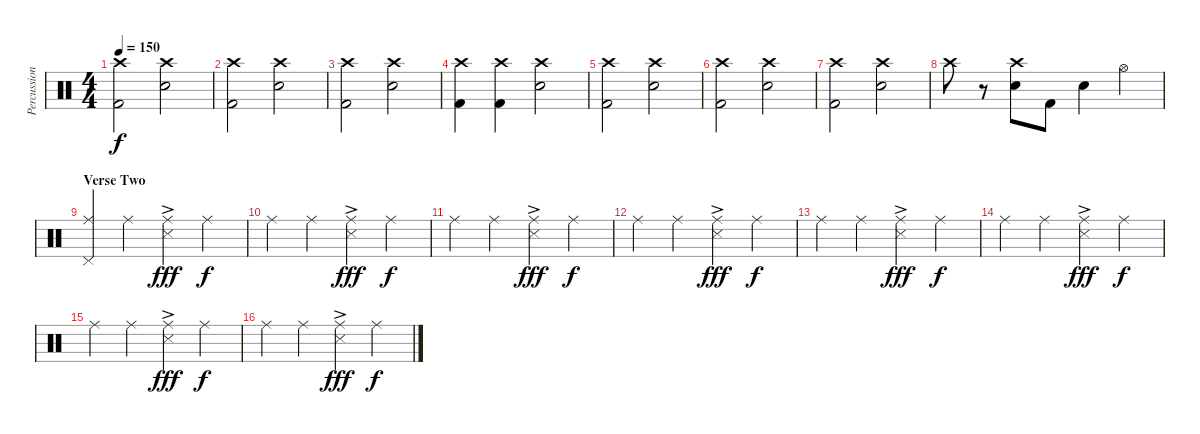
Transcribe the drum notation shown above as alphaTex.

\track ("Percussion [Patrick Wilson]" "Percussion") {instrument percussion}
\staff {score}
\articulation defaults
\ts (4 4)
\tempo 150
\clef neutral
\ks c
("Crash high (hit)" "Kick (hit) 2").2{dy f volume 13} ("Crash high (hit)" "Snare (hit) 2").2 |
("Crash high (hit)" "Kick (hit) 2").2 ("Crash high (hit)" "Snare (hit) 2").2 |
("Crash high (hit)" "Kick (hit) 2").2 ("Crash high (hit)" "Snare (hit) 2").2 |
("Crash high (hit)" "Kick (hit) 2").4 ("Crash high (hit)" "Kick (hit) 2").4 ("Crash high (hit)" "Snare (hit) 2").2 |
("Crash high (hit)" "Kick (hit) 2").2{volume 13} ("Crash high (hit)" "Snare (hit) 2").2 |
("Crash high (hit)" "Kick (hit) 2").2 ("Crash high (hit)" "Snare (hit) 2").2 |
("Crash high (hit)" "Kick (hit) 2").2 ("Crash high (hit)" "Snare (hit) 2").2 |
"Crash high (hit)".8 r.8 ("Crash high (hit)" "Snare (hit) 2").8 "Kick (hit) 2".8 "Snare (hit) 2".4 "Hi-Hat (open)".4 |
\section ("" "Verse Two")
("Ride (middle)" "Pedal Hi-Hat (hit)").4{volume 10} "Ride (middle)".4 ("Ride (middle)"{ac} "Snare (side stick) 3").4{dy fff} "Ride (middle)".4{dy f} |
"Ride (middle)".4 "Ride (middle)".4 ("Ride (middle)"{ac} "Snare (side stick) 3").4{dy fff} "Ride (middle)".4{dy f} |
"Ride (middle)".4 "Ride (middle)".4 ("Ride (middle)"{ac} "Snare (side stick) 3").4{dy fff} "Ride (middle)".4{dy f} |
"Ride (middle)".4 "Ride (middle)".4 ("Ride (middle)"{ac} "Snare (side stick) 3").4{dy fff} "Ride (middle)".4{dy f} |
"Ride (middle)".4 "Ride (middle)".4 ("Ride (middle)"{ac} "Snare (side stick) 3").4{dy fff} "Ride (middle)".4{dy f} |
"Ride (middle)".4 "Ride (middle)".4 ("Ride (middle)"{ac} "Snare (side stick) 3").4{dy fff} "Ride (middle)".4{dy f} |
"Ride (middle)".4 "Ride (middle)".4 ("Ride (middle)"{ac} "Snare (side stick) 3").4{dy fff} "Ride (middle)".4{dy f} |
"Ride (middle)".4 "Ride (middle)".4 ("Ride (middle)"{ac} "Snare (side stick) 3").4{dy fff} "Ride (middle)".4{dy f}
